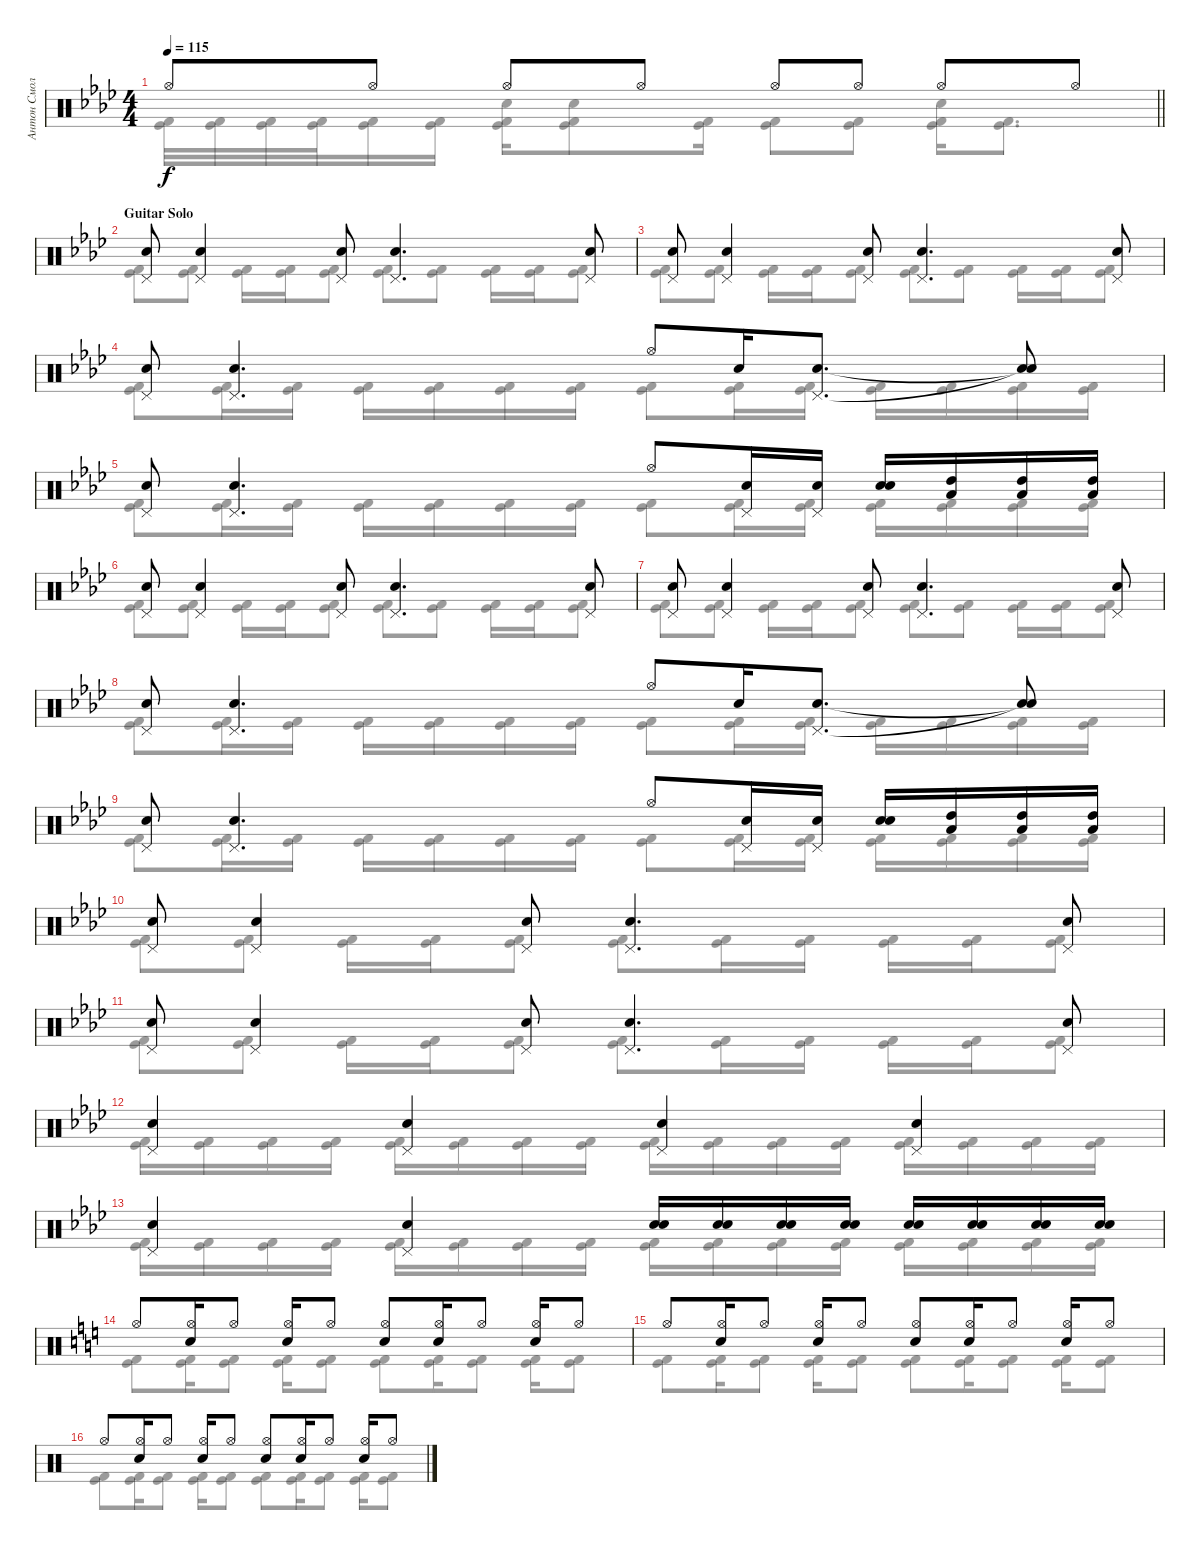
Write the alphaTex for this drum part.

\track ("Антон Смольянин" "Антон Смол") {instrument percussion}
\staff {score}
\articulation defaults
\voice
\ts (4 4)
\tempo 115
\clef neutral
\barLineRight lightlight
\ks ab "Hi-Hat (open)".8{dy f} "Hi-Hat (open)".8 "Hi-Hat (open)".8 "Hi-Hat (open)".8 "Hi-Hat (open)".8 "Hi-Hat (open)".8 "Hi-Hat (open)".8 "Hi-Hat (open)".8
|
\section ("" "Guitar Solo")
("Electric Snare (hit)" "Pedal Hi-Hat (hit)").8 ("Electric Snare (hit)" "Pedal Hi-Hat (hit)").4 ("Electric Snare (hit)" "Pedal Hi-Hat (hit)").8 ("Electric Snare (hit)" "Pedal Hi-Hat (hit)").4{d} ("Electric Snare (hit)" "Pedal Hi-Hat (hit)").8 |
("Electric Snare (hit)" "Pedal Hi-Hat (hit)").8 ("Electric Snare (hit)" "Pedal Hi-Hat (hit)").4 ("Electric Snare (hit)" "Pedal Hi-Hat (hit)").8 ("Electric Snare (hit)" "Pedal Hi-Hat (hit)").4{d} ("Electric Snare (hit)" "Pedal Hi-Hat (hit)").8 |
("Snare (hit) 2" "Pedal Hi-Hat (hit)").8 ("Snare (hit) 2" "Pedal Hi-Hat (hit)").4{d} "Hi-Hat (open)".8 "Snare (hit) 2".16 ("Snare (hit) 2" "Pedal Hi-Hat (hit)").8{d} ("Snare (hit)"{t} "Snare (hit)"{t}).8 |
("Snare (hit) 2" "Pedal Hi-Hat (hit)").8 ("Snare (hit) 2" "Pedal Hi-Hat (hit)").4{d} "Hi-Hat (open)".8 ("Snare (hit) 2" "Pedal Hi-Hat (hit)").16 ("Snare (hit) 2" "Pedal Hi-Hat (hit)").16 ("Snare (hit) 2" "Snare (hit) 2").16 ("Low Tom (hit)" "High Tom (hit)").16 ("Low Tom (hit)" "High Tom (hit)").16 ("Low Tom (hit)" "High Tom (hit)").16 |
("Electric Snare (hit)" "Pedal Hi-Hat (hit)").8 ("Electric Snare (hit)" "Pedal Hi-Hat (hit)").4 ("Electric Snare (hit)" "Pedal Hi-Hat (hit)").8 ("Electric Snare (hit)" "Pedal Hi-Hat (hit)").4{d} ("Electric Snare (hit)" "Pedal Hi-Hat (hit)").8 |
("Electric Snare (hit)" "Pedal Hi-Hat (hit)").8 ("Electric Snare (hit)" "Pedal Hi-Hat (hit)").4 ("Electric Snare (hit)" "Pedal Hi-Hat (hit)").8 ("Electric Snare (hit)" "Pedal Hi-Hat (hit)").4{d} ("Electric Snare (hit)" "Pedal Hi-Hat (hit)").8 |
("Snare (hit) 2" "Pedal Hi-Hat (hit)").8 ("Snare (hit) 2" "Pedal Hi-Hat (hit)").4{d} "Hi-Hat (open)".8 "Snare (hit) 2".16 ("Snare (hit) 2" "Pedal Hi-Hat (hit)").8{d} ("Snare (hit)"{t} "Snare (hit)"{t}).8 |
("Snare (hit) 2" "Pedal Hi-Hat (hit)").8 ("Snare (hit) 2" "Pedal Hi-Hat (hit)").4{d} "Hi-Hat (open)".8 ("Snare (hit) 2" "Pedal Hi-Hat (hit)").16 ("Snare (hit) 2" "Pedal Hi-Hat (hit)").16 ("Snare (hit) 2" "Snare (hit) 2").16 ("Low Tom (hit)" "High Tom (hit)").16 ("Low Tom (hit)" "High Tom (hit)").16 ("Low Tom (hit)" "High Tom (hit)").16 |
("Electric Snare (hit)" "Pedal Hi-Hat (hit)").8 ("Electric Snare (hit)" "Pedal Hi-Hat (hit)").4 ("Electric Snare (hit)" "Pedal Hi-Hat (hit)").8 ("Electric Snare (hit)" "Pedal Hi-Hat (hit)").4{d} ("Electric Snare (hit)" "Pedal Hi-Hat (hit)").8 |
("Electric Snare (hit)" "Pedal Hi-Hat (hit)").8 ("Electric Snare (hit)" "Pedal Hi-Hat (hit)").4 ("Electric Snare (hit)" "Pedal Hi-Hat (hit)").8 ("Electric Snare (hit)" "Pedal Hi-Hat (hit)").4{d} ("Electric Snare (hit)" "Pedal Hi-Hat (hit)").8 |
("Electric Snare (hit)" "Pedal Hi-Hat (hit)").4 ("Electric Snare (hit)" "Pedal Hi-Hat (hit)").4 ("Electric Snare (hit)" "Pedal Hi-Hat (hit)").4 ("Electric Snare (hit)" "Pedal Hi-Hat (hit)").4 |
("Electric Snare (hit)" "Pedal Hi-Hat (hit)").4 ("Electric Snare (hit)" "Pedal Hi-Hat (hit)").4 ("Snare (hit) 2" "Snare (hit) 2").16 ("Snare (hit) 2" "Snare (hit) 2").16 ("Snare (hit) 2" "Snare (hit) 2").16 ("Snare (hit) 2" "Snare (hit) 2").16 ("Snare (hit) 2" "Snare (hit) 2").16 ("Snare (hit) 2" "Snare (hit) 2").16 ("Snare (hit) 2" "Snare (hit) 2").16 ("Snare (hit) 2" "Snare (hit) 2").16 |
\ks c "Hi-Hat (open)".8
("Snare (hit) 2" "Hi-Hat (open)").16 "Hi-Hat (open)".8 ("Snare (hit) 2" "Hi-Hat (open)").16 "Hi-Hat (open)".8 ("Snare (hit) 2" "Hi-Hat (open)").8 ("Snare (hit) 2" "Hi-Hat (open)").16 "Hi-Hat (open)".8 ("Snare (hit) 2" "Hi-Hat (open)").16 "Hi-Hat (open)".8 |
"Hi-Hat (open)".8 ("Snare (hit) 2" "Hi-Hat (open)").16 "Hi-Hat (open)".8 ("Snare (hit) 2" "Hi-Hat (open)").16 "Hi-Hat (open)".8 ("Snare (hit) 2" "Hi-Hat (open)").8 ("Snare (hit) 2" "Hi-Hat (open)").16 "Hi-Hat (open)".8 ("Snare (hit) 2" "Hi-Hat (open)").16 "Hi-Hat (open)".8 |
"Hi-Hat (open)".8 ("Snare (hit) 2" "Hi-Hat (open)").16 "Hi-Hat (open)".8 ("Snare (hit) 2" "Hi-Hat (open)").16 "Hi-Hat (open)".8 ("Snare (hit) 2" "Hi-Hat (open)").8 ("Snare (hit) 2" "Hi-Hat (open)").16 "Hi-Hat (open)".8 ("Snare (hit) 2" "Hi-Hat (open)").16 "Hi-Hat (open)".8
\voice
\clef neutral
\ottava regular
\simile none
\barLineRight lightlight
\ks ab
("Kick (hit) 2" "Kick (hit)").32{dy f} ("Kick (hit) 2" "Kick (hit)").32 ("Kick (hit) 2" "Kick (hit)").32 ("Kick (hit) 2" "Kick (hit)").32 ("Kick (hit) 2" "Kick (hit)").16 ("Kick (hit) 2" "Kick (hit)").16 ("Kick (hit) 2" "Kick (hit)" "Electric Snare (hit)").16 ("Kick (hit) 2" "Kick (hit)" "Electric Snare (hit)").8 ("Kick (hit) 2" "Kick (hit)").16 ("Kick (hit) 2" "Kick (hit)").8 ("Kick (hit) 2" "Kick (hit)").8 ("Kick (hit) 2" "Kick (hit)" "Electric Snare (hit)").16 ("Kick (hit) 2" "Kick (hit)").8{d} |
("Kick (hit) 2" "Kick (hit)").8 ("Kick (hit) 2" "Kick (hit)").8 ("Kick (hit) 2" "Kick (hit)").16 ("Kick (hit) 2" "Kick (hit)").16 ("Kick (hit) 2" "Kick (hit)").8 ("Kick (hit) 2" "Kick (hit)").8 ("Kick (hit) 2" "Kick (hit)").8 ("Kick (hit) 2" "Kick (hit)").16 ("Kick (hit) 2" "Kick (hit)").16 ("Kick (hit) 2" "Kick (hit)").8 |
("Kick (hit) 2" "Kick (hit)").8 ("Kick (hit) 2" "Kick (hit)").8 ("Kick (hit) 2" "Kick (hit)").16 ("Kick (hit) 2" "Kick (hit)").16 ("Kick (hit) 2" "Kick (hit)").8 ("Kick (hit) 2" "Kick (hit)").8 ("Kick (hit) 2" "Kick (hit)").8 ("Kick (hit) 2" "Kick (hit)").16 ("Kick (hit) 2" "Kick (hit)").16 ("Kick (hit) 2" "Kick (hit)").8 |
("Kick (hit) 2" "Kick (hit)").8 ("Kick (hit) 2" "Kick (hit)").16 ("Kick (hit) 2" "Kick (hit)").16 ("Kick (hit) 2" "Kick (hit)").16 ("Kick (hit) 2" "Kick (hit)").16 ("Kick (hit) 2" "Kick (hit)").16 ("Kick (hit) 2" "Kick (hit)").16 ("Kick (hit) 2" "Kick (hit)").8 ("Kick (hit) 2" "Kick (hit)").16 ("Kick (hit) 2" "Kick (hit)").16 ("Kick (hit) 2" "Kick (hit)").16 ("Kick (hit) 2" "Kick (hit)").16 ("Kick (hit) 2" "Kick (hit)").16 ("Kick (hit) 2" "Kick (hit)").16 |
("Kick (hit) 2" "Kick (hit)").8 ("Kick (hit) 2" "Kick (hit)").16 ("Kick (hit) 2" "Kick (hit)").16 ("Kick (hit) 2" "Kick (hit)").16 ("Kick (hit) 2" "Kick (hit)").16 ("Kick (hit) 2" "Kick (hit)").16 ("Kick (hit) 2" "Kick (hit)").16 ("Kick (hit) 2" "Kick (hit)").8 ("Kick (hit) 2" "Kick (hit)").16 ("Kick (hit) 2" "Kick (hit)").16 ("Kick (hit) 2" "Kick (hit)").16 ("Kick (hit) 2" "Kick (hit)").16 ("Kick (hit) 2" "Kick (hit)").16 ("Kick (hit) 2" "Kick (hit)").16 |
("Kick (hit) 2" "Kick (hit)").8 ("Kick (hit) 2" "Kick (hit)").8 ("Kick (hit) 2" "Kick (hit)").16 ("Kick (hit) 2" "Kick (hit)").16 ("Kick (hit) 2" "Kick (hit)").8 ("Kick (hit) 2" "Kick (hit)").8 ("Kick (hit) 2" "Kick (hit)").8 ("Kick (hit) 2" "Kick (hit)").16 ("Kick (hit) 2" "Kick (hit)").16 ("Kick (hit) 2" "Kick (hit)").8 |
("Kick (hit) 2" "Kick (hit)").8 ("Kick (hit) 2" "Kick (hit)").8 ("Kick (hit) 2" "Kick (hit)").16 ("Kick (hit) 2" "Kick (hit)").16 ("Kick (hit) 2" "Kick (hit)").8 ("Kick (hit) 2" "Kick (hit)").8 ("Kick (hit) 2" "Kick (hit)").8 ("Kick (hit) 2" "Kick (hit)").16 ("Kick (hit) 2" "Kick (hit)").16 ("Kick (hit) 2" "Kick (hit)").8 |
("Kick (hit) 2" "Kick (hit)").8 ("Kick (hit) 2" "Kick (hit)").16 ("Kick (hit) 2" "Kick (hit)").16 ("Kick (hit) 2" "Kick (hit)").16 ("Kick (hit) 2" "Kick (hit)").16 ("Kick (hit) 2" "Kick (hit)").16 ("Kick (hit) 2" "Kick (hit)").16 ("Kick (hit) 2" "Kick (hit)").8 ("Kick (hit) 2" "Kick (hit)").16 ("Kick (hit) 2" "Kick (hit)").16 ("Kick (hit) 2" "Kick (hit)").16 ("Kick (hit) 2" "Kick (hit)").16 ("Kick (hit) 2" "Kick (hit)").16 ("Kick (hit) 2" "Kick (hit)").16 |
("Kick (hit) 2" "Kick (hit)").8 ("Kick (hit) 2" "Kick (hit)").16 ("Kick (hit) 2" "Kick (hit)").16 ("Kick (hit) 2" "Kick (hit)").16 ("Kick (hit) 2" "Kick (hit)").16 ("Kick (hit) 2" "Kick (hit)").16 ("Kick (hit) 2" "Kick (hit)").16 ("Kick (hit) 2" "Kick (hit)").8 ("Kick (hit) 2" "Kick (hit)").16 ("Kick (hit) 2" "Kick (hit)").16 ("Kick (hit) 2" "Kick (hit)").16 ("Kick (hit) 2" "Kick (hit)").16 ("Kick (hit) 2" "Kick (hit)").16 ("Kick (hit) 2" "Kick (hit)").16 |
("Kick (hit) 2" "Kick (hit)").8 ("Kick (hit) 2" "Kick (hit)").8 ("Kick (hit) 2" "Kick (hit)").16 ("Kick (hit) 2" "Kick (hit)").16 ("Kick (hit) 2" "Kick (hit)").8 ("Kick (hit) 2" "Kick (hit)").8 ("Kick (hit) 2" "Kick (hit)").16 ("Kick (hit) 2" "Kick (hit)").16 ("Kick (hit) 2" "Kick (hit)").16 ("Kick (hit) 2" "Kick (hit)").16 ("Kick (hit) 2" "Kick (hit)").8 |
("Kick (hit) 2" "Kick (hit)").8 ("Kick (hit) 2" "Kick (hit)").8 ("Kick (hit) 2" "Kick (hit)").16 ("Kick (hit) 2" "Kick (hit)").16 ("Kick (hit) 2" "Kick (hit)").8 ("Kick (hit) 2" "Kick (hit)").8 ("Kick (hit) 2" "Kick (hit)").16 ("Kick (hit) 2" "Kick (hit)").16 ("Kick (hit) 2" "Kick (hit)").16 ("Kick (hit) 2" "Kick (hit)").16 ("Kick (hit) 2" "Kick (hit)").8 |
("Kick (hit) 2" "Kick (hit)").16 ("Kick (hit) 2" "Kick (hit)").16 ("Kick (hit) 2" "Kick (hit)").16 ("Kick (hit) 2" "Kick (hit)").16 ("Kick (hit) 2" "Kick (hit)").16 ("Kick (hit) 2" "Kick (hit)").16 ("Kick (hit) 2" "Kick (hit)").16 ("Kick (hit) 2" "Kick (hit)").16 ("Kick (hit) 2" "Kick (hit)").16 ("Kick (hit) 2" "Kick (hit)").16 ("Kick (hit) 2" "Kick (hit)").16 ("Kick (hit) 2" "Kick (hit)").16 ("Kick (hit) 2" "Kick (hit)").16 ("Kick (hit) 2" "Kick (hit)").16 ("Kick (hit) 2" "Kick (hit)").16 ("Kick (hit) 2" "Kick (hit)").16 |
("Kick (hit) 2" "Kick (hit)").16 ("Kick (hit) 2" "Kick (hit)").16 ("Kick (hit) 2" "Kick (hit)").16 ("Kick (hit) 2" "Kick (hit)").16 ("Kick (hit) 2" "Kick (hit)").16 ("Kick (hit) 2" "Kick (hit)").16 ("Kick (hit) 2" "Kick (hit)").16 ("Kick (hit) 2" "Kick (hit)").16 ("Kick (hit) 2" "Kick (hit)").16 ("Kick (hit) 2" "Kick (hit)").16 ("Kick (hit) 2" "Kick (hit)").16 ("Kick (hit) 2" "Kick (hit)").16 ("Kick (hit) 2" "Kick (hit)").16 ("Kick (hit) 2" "Kick (hit)").16 ("Kick (hit) 2" "Kick (hit)").16 ("Kick (hit) 2" "Kick (hit)").16 |
\ks c
("Kick (hit) 2" "Kick (hit)").8 ("Kick (hit) 2" "Kick (hit)").16 ("Kick (hit) 2" "Kick (hit)").8 ("Kick (hit) 2" "Kick (hit)").16 ("Kick (hit) 2" "Kick (hit)").8 ("Kick (hit) 2" "Kick (hit)").8 ("Kick (hit) 2" "Kick (hit)").16 ("Kick (hit) 2" "Kick (hit)").8 ("Kick (hit) 2" "Kick (hit)").16 ("Kick (hit) 2" "Kick (hit)").8 |
("Kick (hit) 2" "Kick (hit)").8 ("Kick (hit) 2" "Kick (hit)").16 ("Kick (hit) 2" "Kick (hit)").8 ("Kick (hit) 2" "Kick (hit)").16 ("Kick (hit) 2" "Kick (hit)").8 ("Kick (hit) 2" "Kick (hit)").8 ("Kick (hit) 2" "Kick (hit)").16 ("Kick (hit) 2" "Kick (hit)").8 ("Kick (hit) 2" "Kick (hit)").16 ("Kick (hit) 2" "Kick (hit)").8 |
("Kick (hit) 2" "Kick (hit)").8 ("Kick (hit) 2" "Kick (hit)").16 ("Kick (hit) 2" "Kick (hit)").8 ("Kick (hit) 2" "Kick (hit)").16 ("Kick (hit) 2" "Kick (hit)").8 ("Kick (hit) 2" "Kick (hit)").8 ("Kick (hit) 2" "Kick (hit)").16 ("Kick (hit) 2" "Kick (hit)").8 ("Kick (hit) 2" "Kick (hit)").16 ("Kick (hit) 2" "Kick (hit)").8
